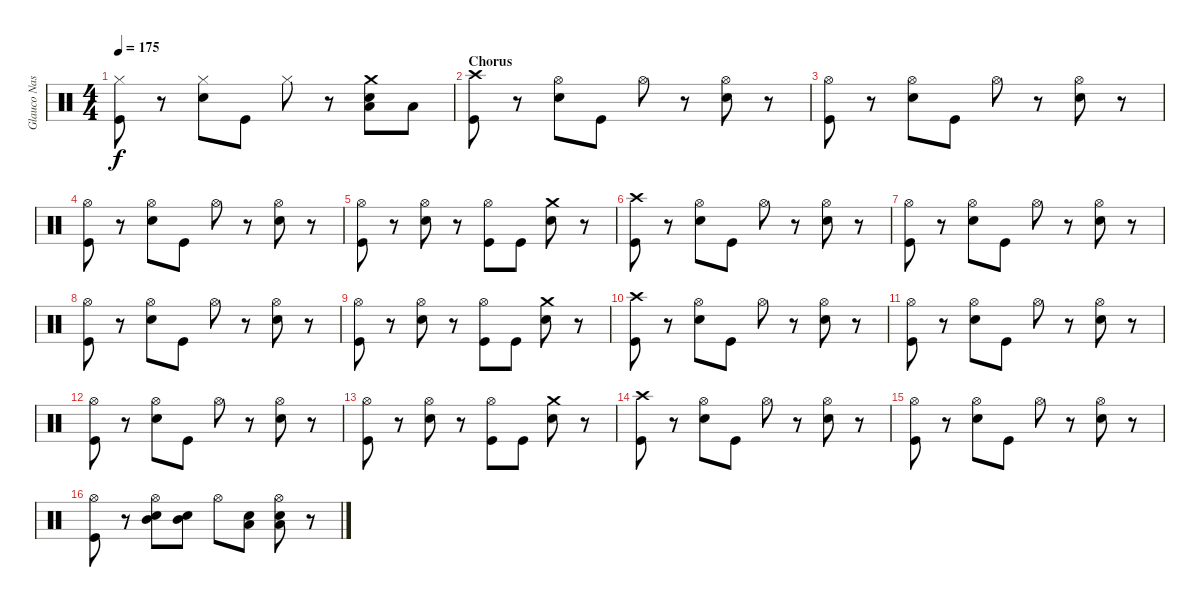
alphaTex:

\track ("Glauco Nastácia" "Glauco Nas") {instrument percussion}
\staff {score}
\articulation defaults
\ts (4 4)
\tempo 175
\clef neutral
\ks c
("Hi-Hat (closed)" "Kick (hit)").8{dy f} r.8 ("Hi-Hat (closed)" "Electric Snare (hit)").8 "Kick (hit)".8 "Hi-Hat (closed)".8 r.8 ("Crash medium (hit)" "Low Tom (hit)" "Electric Snare (hit)").8 "Low Floor Tom (hit)".8 |
\section ("" "Chorus")
("Crash high (hit)" "Kick (hit)").8 r.8 ("Hi-Hat (open)" "Electric Snare (hit)").8 "Kick (hit)".8 "Hi-Hat (open)".8 r.8 ("Hi-Hat (open)" "Electric Snare (hit)").8 r.8 |
("Hi-Hat (open)" "Kick (hit)").8 r.8 ("Hi-Hat (open)" "Electric Snare (hit)").8 "Kick (hit)".8 "Hi-Hat (open)".8 r.8 ("Hi-Hat (open)" "Electric Snare (hit)").8 r.8 |
("Hi-Hat (open)" "Kick (hit)").8 r.8 ("Hi-Hat (open)" "Electric Snare (hit)").8 "Kick (hit)".8 "Hi-Hat (open)".8 r.8 ("Hi-Hat (open)" "Electric Snare (hit)").8 r.8 |
("Hi-Hat (open)" "Kick (hit)").8 r.8 ("Hi-Hat (open)" "Electric Snare (hit)").8 r.8 ("Hi-Hat (open)" "Kick (hit)").8 "Kick (hit)".8 ("Crash medium (hit)" "Electric Snare (hit)").8 r.8 |
("Crash high (hit)" "Kick (hit)").8 r.8 ("Hi-Hat (open)" "Electric Snare (hit)").8 "Kick (hit)".8 "Hi-Hat (open)".8 r.8 ("Hi-Hat (open)" "Electric Snare (hit)").8 r.8 |
("Hi-Hat (open)" "Kick (hit)").8 r.8 ("Hi-Hat (open)" "Electric Snare (hit)").8 "Kick (hit)".8 "Hi-Hat (open)".8 r.8 ("Hi-Hat (open)" "Electric Snare (hit)").8 r.8 |
("Hi-Hat (open)" "Kick (hit)").8 r.8 ("Hi-Hat (open)" "Electric Snare (hit)").8 "Kick (hit)".8 "Hi-Hat (open)".8 r.8 ("Hi-Hat (open)" "Electric Snare (hit)").8 r.8 |
("Hi-Hat (open)" "Kick (hit)").8 r.8 ("Hi-Hat (open)" "Electric Snare (hit)").8 r.8 ("Hi-Hat (open)" "Kick (hit)").8 "Kick (hit)".8 ("Crash medium (hit)" "Electric Snare (hit)").8 r.8 |
("Crash high (hit)" "Kick (hit)").8 r.8 ("Hi-Hat (open)" "Electric Snare (hit)").8 "Kick (hit)".8 "Hi-Hat (open)".8 r.8 ("Hi-Hat (open)" "Electric Snare (hit)").8 r.8 |
("Hi-Hat (open)" "Kick (hit)").8 r.8 ("Hi-Hat (open)" "Electric Snare (hit)").8 "Kick (hit)".8 "Hi-Hat (open)".8 r.8 ("Hi-Hat (open)" "Electric Snare (hit)").8 r.8 |
("Hi-Hat (open)" "Kick (hit)").8 r.8 ("Hi-Hat (open)" "Electric Snare (hit)").8 "Kick (hit)".8 "Hi-Hat (open)".8 r.8 ("Hi-Hat (open)" "Electric Snare (hit)").8 r.8 |
("Hi-Hat (open)" "Kick (hit)").8 r.8 ("Hi-Hat (open)" "Electric Snare (hit)").8 r.8 ("Hi-Hat (open)" "Kick (hit)").8 "Kick (hit)".8 ("Crash medium (hit)" "Electric Snare (hit)").8 r.8 |
("Crash high (hit)" "Kick (hit)").8 r.8 ("Hi-Hat (open)" "Electric Snare (hit)").8 "Kick (hit)".8 "Hi-Hat (open)".8 r.8 ("Hi-Hat (open)" "Electric Snare (hit)").8 r.8 |
("Hi-Hat (open)" "Kick (hit)").8 r.8 ("Hi-Hat (open)" "Electric Snare (hit)").8 "Kick (hit)".8 "Hi-Hat (open)".8 r.8 ("Hi-Hat (open)" "Electric Snare (hit)").8 r.8 |
("Hi-Hat (open)" "Kick (hit)").8 r.8 ("Hi-Hat (open)" "Mid Tom (hit)" "Electric Snare (hit)").8 ("Mid Tom (hit)" "Electric Snare (hit)").8 "Hi-Hat (open)".8 ("Low Tom (hit)" "Electric Snare (hit)").8 ("Hi-Hat (open)" "Low Tom (hit)" "Electric Snare (hit)").8 r.8
